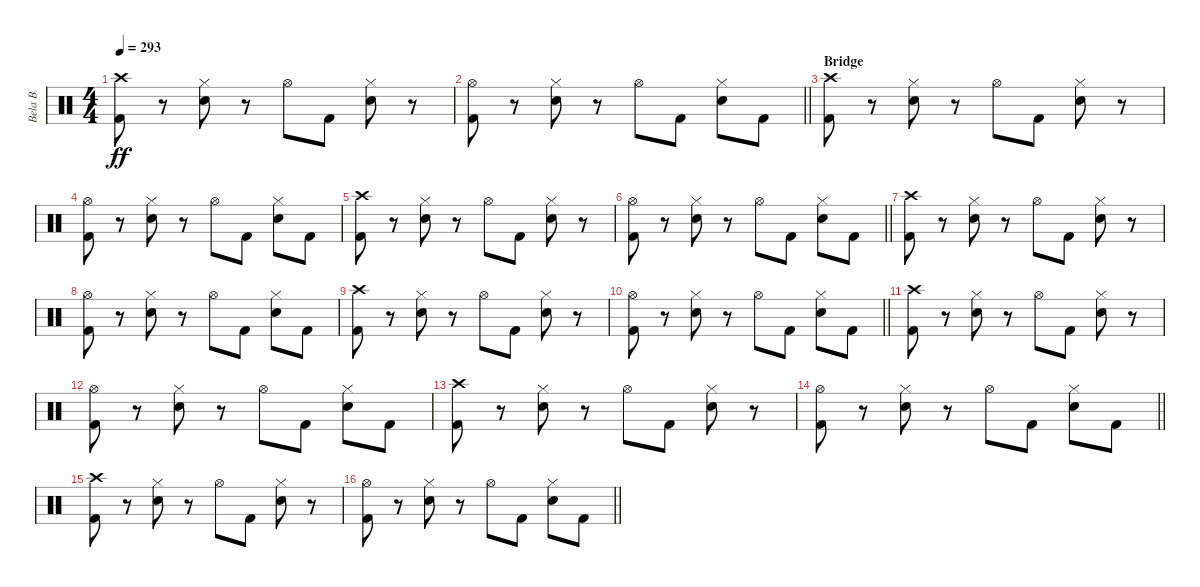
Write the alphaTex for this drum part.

\track ("Bela B." "Bela B.") {instrument percussion}
\staff {score}
\articulation defaults
\ts (4 4)
\tempo 293
\clef neutral
\ks c
("Crash high (hit)" "Kick (hit) 2").8{dy ff} r.8 ("Hi-Hat (closed)" "Snare (hit) 2").8 r.8 "Hi-Hat (open)".8 "Kick (hit) 2".8 ("Hi-Hat (closed)" "Snare (hit) 2").8 r.8 |
\barLineRight lightlight
("Hi-Hat (open)" "Kick (hit) 2").8 r.8 ("Hi-Hat (closed)" "Snare (hit) 2").8 r.8 "Hi-Hat (open)".8 "Kick (hit) 2".8 ("Hi-Hat (closed)" "Snare (hit) 2").8 "Kick (hit) 2".8 |
\section ("" "Bridge")
("Crash high (hit)" "Kick (hit) 2").8 r.8 ("Hi-Hat (closed)" "Snare (hit) 2").8 r.8 "Hi-Hat (open)".8 "Kick (hit) 2".8 ("Hi-Hat (closed)" "Snare (hit) 2").8 r.8 |
("Hi-Hat (open)" "Kick (hit) 2").8 r.8 ("Hi-Hat (closed)" "Snare (hit) 2").8 r.8 "Hi-Hat (open)".8 "Kick (hit) 2".8 ("Hi-Hat (closed)" "Snare (hit) 2").8 "Kick (hit) 2".8 |
("Crash high (hit)" "Kick (hit) 2").8 r.8 ("Hi-Hat (closed)" "Snare (hit) 2").8 r.8 "Hi-Hat (open)".8 "Kick (hit) 2".8 ("Hi-Hat (closed)" "Snare (hit) 2").8 r.8 |
\barLineRight lightlight
("Hi-Hat (open)" "Kick (hit) 2").8 r.8 ("Hi-Hat (closed)" "Snare (hit) 2").8 r.8 "Hi-Hat (open)".8 "Kick (hit) 2".8 ("Hi-Hat (closed)" "Snare (hit) 2").8 "Kick (hit) 2".8 |
("Crash high (hit)" "Kick (hit) 2").8 r.8 ("Hi-Hat (closed)" "Snare (hit) 2").8 r.8 "Hi-Hat (open)".8 "Kick (hit) 2".8 ("Hi-Hat (closed)" "Snare (hit) 2").8 r.8 |
("Hi-Hat (open)" "Kick (hit) 2").8 r.8 ("Hi-Hat (closed)" "Snare (hit) 2").8 r.8 "Hi-Hat (open)".8 "Kick (hit) 2".8 ("Hi-Hat (closed)" "Snare (hit) 2").8 "Kick (hit) 2".8 |
("Crash high (hit)" "Kick (hit) 2").8 r.8 ("Hi-Hat (closed)" "Snare (hit) 2").8 r.8 "Hi-Hat (open)".8 "Kick (hit) 2".8 ("Hi-Hat (closed)" "Snare (hit) 2").8 r.8 |
\barLineRight lightlight
("Hi-Hat (open)" "Kick (hit) 2").8 r.8 ("Hi-Hat (closed)" "Snare (hit) 2").8 r.8 "Hi-Hat (open)".8 "Kick (hit) 2".8 ("Hi-Hat (closed)" "Snare (hit) 2").8 "Kick (hit) 2".8 |
("Crash high (hit)" "Kick (hit) 2").8 r.8 ("Hi-Hat (closed)" "Snare (hit) 2").8 r.8 "Hi-Hat (open)".8 "Kick (hit) 2".8 ("Hi-Hat (closed)" "Snare (hit) 2").8 r.8 |
("Hi-Hat (open)" "Kick (hit) 2").8 r.8 ("Hi-Hat (closed)" "Snare (hit) 2").8 r.8 "Hi-Hat (open)".8 "Kick (hit) 2".8 ("Hi-Hat (closed)" "Snare (hit) 2").8 "Kick (hit) 2".8 |
("Crash high (hit)" "Kick (hit) 2").8 r.8 ("Hi-Hat (closed)" "Snare (hit) 2").8 r.8 "Hi-Hat (open)".8 "Kick (hit) 2".8 ("Hi-Hat (closed)" "Snare (hit) 2").8 r.8 |
\barLineRight lightlight
("Hi-Hat (open)" "Kick (hit) 2").8 r.8 ("Hi-Hat (closed)" "Snare (hit) 2").8 r.8 "Hi-Hat (open)".8 "Kick (hit) 2".8 ("Hi-Hat (closed)" "Snare (hit) 2").8 "Kick (hit) 2".8 |
("Crash high (hit)" "Kick (hit) 2").8 r.8 ("Hi-Hat (closed)" "Snare (hit) 2").8 r.8 "Hi-Hat (open)".8 "Kick (hit) 2".8 ("Hi-Hat (closed)" "Snare (hit) 2").8 r.8 |
\barLineRight lightlight
("Hi-Hat (open)" "Kick (hit) 2").8 r.8 ("Hi-Hat (closed)" "Snare (hit) 2").8 r.8 "Hi-Hat (open)".8 "Kick (hit) 2".8 ("Hi-Hat (closed)" "Snare (hit) 2").8 "Kick (hit) 2".8
